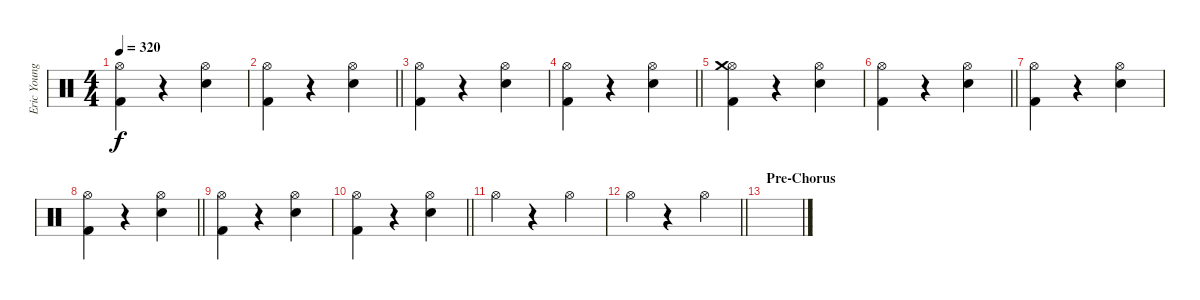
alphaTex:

\track ("Eric Young (Drums)" "Eric Young") {instrument percussion}
\staff {score}
\articulation defaults
\ts (4 4)
\tempo 320
\clef neutral
\ks c
("Hi-Hat (open)" "Kick (hit) 2").4{dy f} r.4 ("Hi-Hat (open)" "Snare (hit) 2").4 |
\barLineRight lightlight
("Hi-Hat (open)" "Kick (hit) 2").4 r.4 ("Hi-Hat (open)" "Snare (hit) 2").4 |
("Hi-Hat (open)" "Kick (hit) 2").4 r.4 ("Hi-Hat (open)" "Snare (hit) 2").4 |
\barLineRight lightlight
("Hi-Hat (open)" "Kick (hit) 2").4 r.4 ("Hi-Hat (open)" "Snare (hit) 2").4 |
("Hi-Hat (open)" "Kick (hit) 2" "Crash medium (hit)").4 r.4 ("Hi-Hat (open)" "Snare (hit) 2").4 |
\barLineRight lightlight
("Hi-Hat (open)" "Kick (hit) 2").4 r.4 ("Hi-Hat (open)" "Snare (hit) 2").4 |
("Hi-Hat (open)" "Kick (hit) 2").4 r.4 ("Hi-Hat (open)" "Snare (hit) 2").4 |
\barLineRight lightlight
("Hi-Hat (open)" "Kick (hit) 2").4 r.4 ("Hi-Hat (open)" "Snare (hit) 2").4 |
("Hi-Hat (open)" "Kick (hit) 2").4 r.4 ("Hi-Hat (open)" "Snare (hit) 2").4 |
\barLineRight lightlight
("Hi-Hat (open)" "Kick (hit) 2").4 r.4 ("Hi-Hat (open)" "Snare (hit) 2").4 |
"Hi-Hat (open)".4 r.4 "Hi-Hat (open)".4 |
\barLineRight lightlight "Hi-Hat (open)".4
r.4 "Hi-Hat (open)".4 |
\section ("" "Pre-Chorus")
